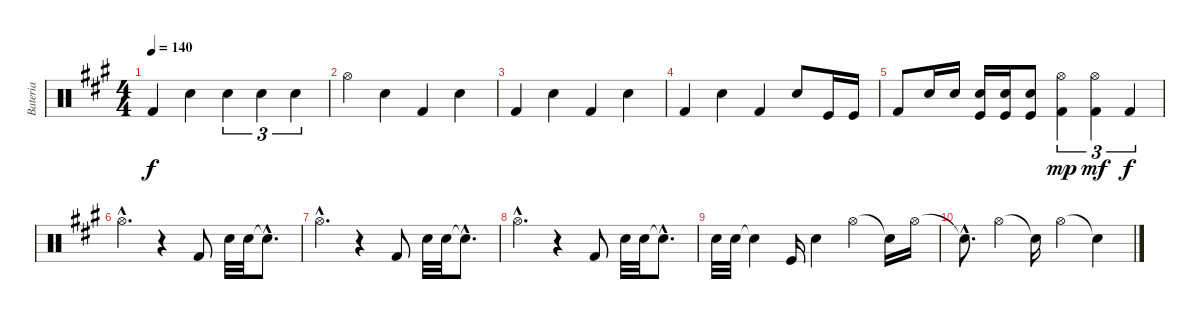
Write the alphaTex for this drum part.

\track ("Bateria" "Bateria") {instrument percussion}
\staff {score}
\articulation defaults
\ts (4 4)
\tempo 140
\clef neutral
\ks a "Kick (hit) 2".4{dy f} "Electric Snare (hit)".4 "Electric Snare (hit)".4{tu (3 2)} "Electric Snare (hit)".4{tu (3 2)} "Electric Snare (hit)".4{tu (3 2)}
|
"Hi-Hat (open)".4 "Electric Snare (hit)".4 "Kick (hit) 2".4 "Electric Snare (hit)".4 |
"Kick (hit) 2".4 "Electric Snare (hit)".4 "Kick (hit) 2".4 "Electric Snare (hit)".4 |
"Kick (hit) 2".4 "Electric Snare (hit)".4 "Kick (hit) 2".4 "Electric Snare (hit)".8 "Kick (hit)".16 "Kick (hit)".16 |
"Kick (hit) 2".8 "Electric Snare (hit)".16 "Electric Snare (hit)".16 ("Electric Snare (hit)" "Kick (hit)").16 ("Electric Snare (hit)" "Kick (hit)").16 ("Electric Snare (hit)" "Kick (hit)").8 ("Hi-Hat (open)" "Kick (hit) 2").4{tu (3 2) dy mp} ("Hi-Hat (open)" "Kick (hit) 2").4{tu (3 2) dy mf} "Kick (hit) 2".4{tu (3 2) dy f} |
"Hi-Hat (open)"{hac}.4{d} r.4 "Kick (hit) 2".8 "Electric Snare (hit)".32 "Electric Snare (hit)".32 "Snare (hit)"{hac t}.8{d} |
"Hi-Hat (open)"{hac}.4{d} r.4 "Kick (hit) 2".8 "Electric Snare (hit)".32 "Electric Snare (hit)".32 "Snare (hit)"{hac t}.8{d} |
"Hi-Hat (open)"{hac}.4{d} r.4 "Kick (hit) 2".8 "Electric Snare (hit)".32 "Electric Snare (hit)".32 "Snare (hit)"{hac t}.8{d} |
"Electric Snare (hit)".32 "Electric Snare (hit)".32 "Snare (hit)"{t}.4 "Kick (hit)".16 "Electric Snare (hit)".4 "Hi-Hat (open)".4 "Snare (hit)"{t}.16 "Hi-Hat (open)".16 |
"Snare (hit)"{hac t}.8{d} "Hi-Hat (open)".4 "Snare (hit)"{t}.16 "Hi-Hat (open)".4 "Snare (hit)"{t}.4
